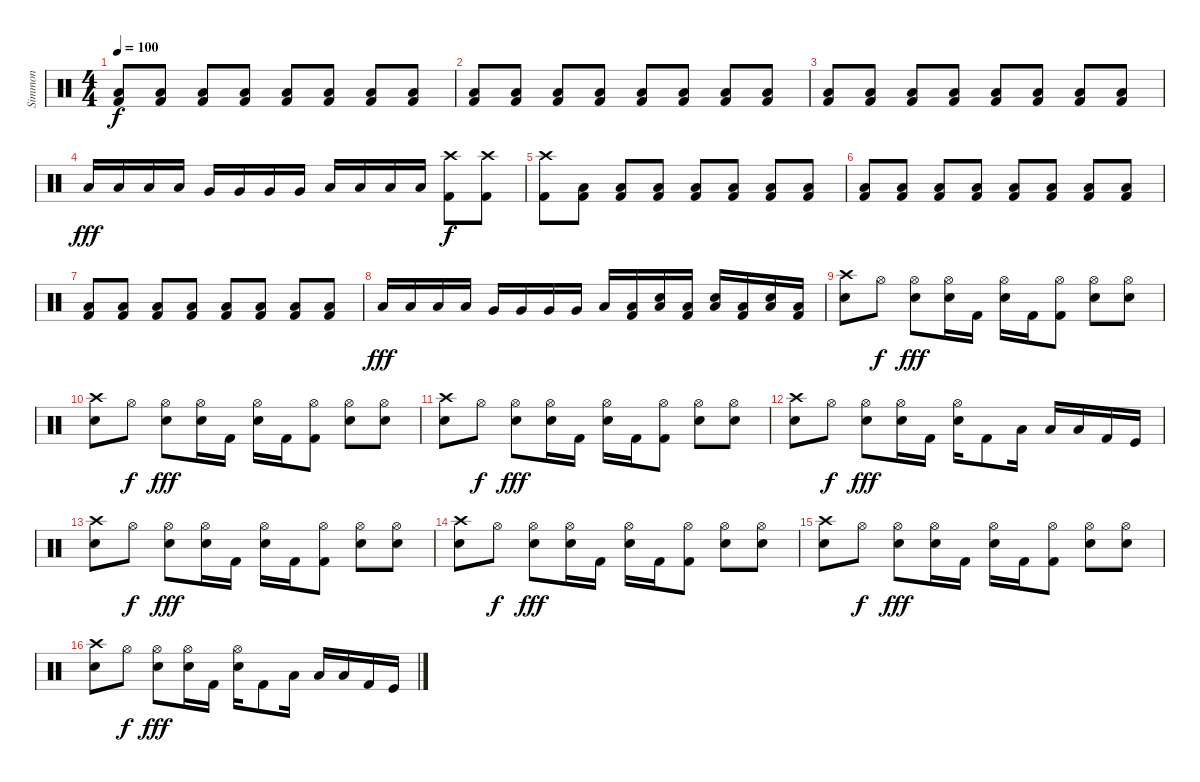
\track ("Simmon" "Simmon") {instrument percussion}
\staff {score}
\articulation defaults
\ts (4 4)
\tempo 100
\clef neutral
\ks c
("Kick (hit) 2" "Low Floor Tom (hit)").8{dy f} ("Kick (hit) 2" "Low Floor Tom (hit)").8 ("Kick (hit) 2" "Low Floor Tom (hit)").8 ("Kick (hit) 2" "Low Floor Tom (hit)").8 ("Kick (hit) 2" "Low Floor Tom (hit)").8 ("Kick (hit) 2" "Low Floor Tom (hit)").8 ("Kick (hit) 2" "Low Floor Tom (hit)").8 ("Kick (hit) 2" "Low Floor Tom (hit)").8 |
("Kick (hit) 2" "Low Floor Tom (hit)").8 ("Kick (hit) 2" "Low Floor Tom (hit)").8 ("Kick (hit) 2" "Low Floor Tom (hit)").8 ("Kick (hit) 2" "Low Floor Tom (hit)").8 ("Kick (hit) 2" "Low Floor Tom (hit)").8 ("Kick (hit) 2" "Low Floor Tom (hit)").8 ("Kick (hit) 2" "Low Floor Tom (hit)").8 ("Kick (hit) 2" "Low Floor Tom (hit)").8 |
("Kick (hit) 2" "Low Floor Tom (hit)").8 ("Kick (hit) 2" "Low Floor Tom (hit)").8 ("Kick (hit) 2" "Low Floor Tom (hit)").8 ("Kick (hit) 2" "Low Floor Tom (hit)").8 ("Kick (hit) 2" "Low Floor Tom (hit)").8 ("Kick (hit) 2" "Low Floor Tom (hit)").8 ("Kick (hit) 2" "Low Floor Tom (hit)").8 ("Kick (hit) 2" "Low Floor Tom (hit)").8 |
"Low Floor Tom (hit)".16{dy fff} "Low Floor Tom (hit)".16 "Low Floor Tom (hit)".16 "Low Floor Tom (hit)".16 "Very Low Tom (hit)".16 "Very Low Tom (hit)".16 "Very Low Tom (hit)".16 "Very Low Tom (hit)".16 "Low Tom (hit)".16 "Low Tom (hit)".16 "Low Tom (hit)".16 "Low Tom (hit)".16 ("Crash high (hit)" "Kick (hit) 2").8{dy f} ("Crash high (hit)" "Kick (hit) 2").8 |
("Crash high (hit)" "Kick (hit) 2").8 ("Kick (hit) 2" "Low Floor Tom (hit)").8 ("Kick (hit) 2" "Low Floor Tom (hit)").8 ("Kick (hit) 2" "Low Floor Tom (hit)").8 ("Kick (hit) 2" "Low Floor Tom (hit)").8 ("Kick (hit) 2" "Low Floor Tom (hit)").8 ("Kick (hit) 2" "Low Floor Tom (hit)").8 ("Kick (hit) 2" "Low Floor Tom (hit)").8 |
("Kick (hit) 2" "Low Floor Tom (hit)").8 ("Kick (hit) 2" "Low Floor Tom (hit)").8 ("Kick (hit) 2" "Low Floor Tom (hit)").8 ("Kick (hit) 2" "Low Floor Tom (hit)").8 ("Kick (hit) 2" "Low Floor Tom (hit)").8 ("Kick (hit) 2" "Low Floor Tom (hit)").8 ("Kick (hit) 2" "Low Floor Tom (hit)").8 ("Kick (hit) 2" "Low Floor Tom (hit)").8 |
("Kick (hit) 2" "Low Floor Tom (hit)").8 ("Kick (hit) 2" "Low Floor Tom (hit)").8 ("Kick (hit) 2" "Low Floor Tom (hit)").8 ("Kick (hit) 2" "Low Floor Tom (hit)").8 ("Kick (hit) 2" "Low Floor Tom (hit)").8 ("Kick (hit) 2" "Low Floor Tom (hit)").8 ("Kick (hit) 2" "Low Floor Tom (hit)").8 ("Kick (hit) 2" "Low Floor Tom (hit)").8 |
"Low Floor Tom (hit)".16{dy fff} "Low Floor Tom (hit)".16 "Low Floor Tom (hit)".16 "Low Floor Tom (hit)".16 "Very Low Tom (hit)".16 "Very Low Tom (hit)".16 "Very Low Tom (hit)".16 "Very Low Tom (hit)".16 "Low Tom (hit)".16 ("Kick (hit) 2" "Low Tom (hit)").16 ("Electric Snare (hit)" "Low Tom (hit)").16 ("Kick (hit) 2" "Low Tom (hit)").16 ("Electric Snare (hit)" "Low Tom (hit)").16 ("Kick (hit) 2" "Low Tom (hit)").16 ("Electric Snare (hit)" "Low Tom (hit)").16 ("Kick (hit) 2" "Low Tom (hit)").16 |
("Electric Snare (hit)" "Crash high (hit)").8 "Hi-Hat (open)".8{dy f} ("Electric Snare (hit)" "Hi-Hat (open)").8{dy fff} ("Electric Snare (hit)" "Hi-Hat (open)").16 "Kick (hit) 2".16 ("Electric Snare (hit)" "Hi-Hat (open)").16 "Kick (hit) 2".16 ("Kick (hit) 2" "Hi-Hat (open)").8 ("Electric Snare (hit)" "Hi-Hat (open)").8 ("Electric Snare (hit)" "Hi-Hat (open)").8 |
("Electric Snare (hit)" "Crash high (hit)").8 "Hi-Hat (open)".8{dy f} ("Electric Snare (hit)" "Hi-Hat (open)").8{dy fff} ("Electric Snare (hit)" "Hi-Hat (open)").16 "Kick (hit) 2".16 ("Electric Snare (hit)" "Hi-Hat (open)").16 "Kick (hit) 2".16 ("Kick (hit) 2" "Hi-Hat (open)").8 ("Electric Snare (hit)" "Hi-Hat (open)").8 ("Electric Snare (hit)" "Hi-Hat (open)").8 |
("Electric Snare (hit)" "Crash high (hit)").8 "Hi-Hat (open)".8{dy f} ("Electric Snare (hit)" "Hi-Hat (open)").8{dy fff} ("Electric Snare (hit)" "Hi-Hat (open)").16 "Kick (hit) 2".16 ("Electric Snare (hit)" "Hi-Hat (open)").16 "Kick (hit) 2".16 ("Kick (hit) 2" "Hi-Hat (open)").8 ("Electric Snare (hit)" "Hi-Hat (open)").8 ("Electric Snare (hit)" "Hi-Hat (open)").8 |
("Electric Snare (hit)" "Crash high (hit)").8 "Hi-Hat (open)".8{dy f} ("Electric Snare (hit)" "Hi-Hat (open)").8{dy fff} ("Electric Snare (hit)" "Hi-Hat (open)").16 "Kick (hit) 2".16 ("Electric Snare (hit)" "Hi-Hat (open)").16 "Kick (hit) 2".8 "Low Floor Tom (hit)".16 "Low Floor Tom (hit)".16 "Low Floor Tom (hit)".16 "Kick (hit) 2".16 "Kick (hit)".16 |
("Electric Snare (hit)" "Crash high (hit)").8 "Hi-Hat (open)".8{dy f} ("Electric Snare (hit)" "Hi-Hat (open)").8{dy fff} ("Electric Snare (hit)" "Hi-Hat (open)").16 "Kick (hit) 2".16 ("Electric Snare (hit)" "Hi-Hat (open)").16 "Kick (hit) 2".16 ("Kick (hit) 2" "Hi-Hat (open)").8 ("Electric Snare (hit)" "Hi-Hat (open)").8 ("Electric Snare (hit)" "Hi-Hat (open)").8 |
("Electric Snare (hit)" "Crash high (hit)").8 "Hi-Hat (open)".8{dy f} ("Electric Snare (hit)" "Hi-Hat (open)").8{dy fff} ("Electric Snare (hit)" "Hi-Hat (open)").16 "Kick (hit) 2".16 ("Electric Snare (hit)" "Hi-Hat (open)").16 "Kick (hit) 2".16 ("Kick (hit) 2" "Hi-Hat (open)").8 ("Electric Snare (hit)" "Hi-Hat (open)").8 ("Electric Snare (hit)" "Hi-Hat (open)").8 |
("Electric Snare (hit)" "Crash high (hit)").8 "Hi-Hat (open)".8{dy f} ("Electric Snare (hit)" "Hi-Hat (open)").8{dy fff} ("Electric Snare (hit)" "Hi-Hat (open)").16 "Kick (hit) 2".16 ("Electric Snare (hit)" "Hi-Hat (open)").16 "Kick (hit) 2".16 ("Kick (hit) 2" "Hi-Hat (open)").8 ("Electric Snare (hit)" "Hi-Hat (open)").8 ("Electric Snare (hit)" "Hi-Hat (open)").8 |
("Electric Snare (hit)" "Crash high (hit)").8 "Hi-Hat (open)".8{dy f} ("Electric Snare (hit)" "Hi-Hat (open)").8{dy fff} ("Electric Snare (hit)" "Hi-Hat (open)").16 "Kick (hit) 2".16 ("Electric Snare (hit)" "Hi-Hat (open)").16 "Kick (hit) 2".8 "Low Floor Tom (hit)".16 "Low Floor Tom (hit)".16 "Low Floor Tom (hit)".16 "Kick (hit) 2".16 "Kick (hit)".16
